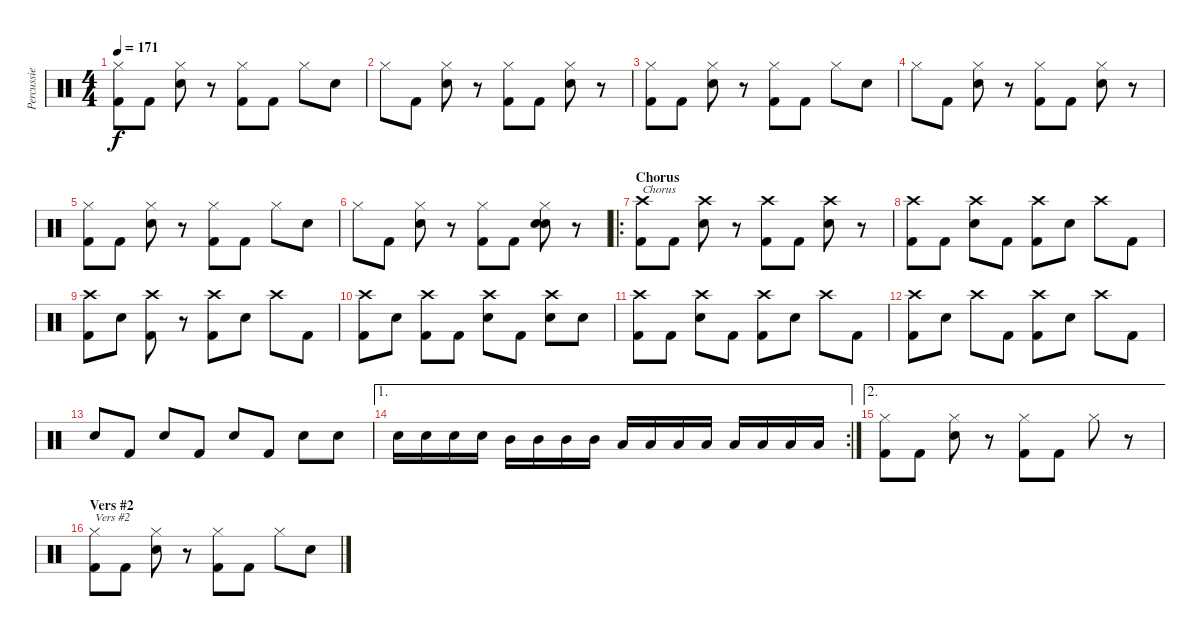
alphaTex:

\track ("Percussie" "Percussie") {instrument percussion}
\staff {score}
\articulation defaults
\ts (4 4)
\tempo 171
\clef neutral
\ks c
("Hi-Hat (closed)" "Kick (hit) 2").8{dy f} "Kick (hit) 2".8 ("Hi-Hat (closed)" "Snare (hit) 2").8 r.8 ("Hi-Hat (closed)" "Kick (hit) 2").8 "Kick (hit) 2".8 "Hi-Hat (closed)".8 "Snare (hit) 2".8 |
"Hi-Hat (closed)".8 "Kick (hit) 2".8 ("Hi-Hat (closed)" "Snare (hit) 2").8 r.8 ("Hi-Hat (closed)" "Kick (hit) 2").8 "Kick (hit) 2".8 ("Hi-Hat (closed)" "Snare (hit) 2").8 r.8 |
("Hi-Hat (closed)" "Kick (hit) 2").8 "Kick (hit) 2".8 ("Hi-Hat (closed)" "Snare (hit) 2").8 r.8 ("Hi-Hat (closed)" "Kick (hit) 2").8 "Kick (hit) 2".8 "Hi-Hat (closed)".8 "Snare (hit) 2".8 |
"Hi-Hat (closed)".8 "Kick (hit) 2".8 ("Hi-Hat (closed)" "Snare (hit) 2").8 r.8 ("Hi-Hat (closed)" "Kick (hit) 2").8 "Kick (hit) 2".8 ("Hi-Hat (closed)" "Snare (hit) 2").8 r.8 |
("Hi-Hat (closed)" "Kick (hit) 2").8 "Kick (hit) 2".8 ("Hi-Hat (closed)" "Snare (hit) 2").8 r.8 ("Hi-Hat (closed)" "Kick (hit) 2").8 "Kick (hit) 2".8 "Hi-Hat (closed)".8 "Snare (hit) 2".8 |
"Hi-Hat (closed)".8 "Kick (hit) 2".8 ("Hi-Hat (closed)" "Snare (hit) 2").8 r.8 ("Hi-Hat (closed)" "Kick (hit) 2").8 "Kick (hit) 2".8 ("Hi-Hat (closed)" "Snare (hit) 2" "Electric Snare (hit)").8 r.8 |
\ro
\section ("" "Chorus")
("Crash high (hit)" "Kick (hit) 2").8{txt "Chorus"} "Kick (hit) 2".8 ("Crash high (hit)" "Snare (hit) 2").8 r.8 ("Crash high (hit)" "Kick (hit) 2").8 "Kick (hit) 2".8 ("Crash high (hit)" "Snare (hit) 2").8 r.8 |
("Crash high (hit)" "Kick (hit) 2").8 "Kick (hit) 2".8 ("Crash high (hit)" "Snare (hit) 2").8 "Kick (hit) 2".8 ("Crash high (hit)" "Kick (hit) 2").8 "Snare (hit) 2".8 "Crash high (hit)".8 "Kick (hit) 2".8 |
("Crash high (hit)" "Kick (hit) 2").8 "Snare (hit) 2".8 ("Crash high (hit)" "Kick (hit) 2").8 r.8 ("Crash high (hit)" "Kick (hit) 2").8 "Snare (hit) 2".8 "Crash high (hit)".8 "Kick (hit) 2".8 |
("Crash high (hit)" "Kick (hit) 2").8 "Snare (hit) 2".8 ("Crash high (hit)" "Kick (hit) 2").8 "Kick (hit) 2".8 ("Crash high (hit)" "Snare (hit) 2").8 "Kick (hit) 2".8 ("Crash high (hit)" "Snare (hit) 2").8 "Snare (hit) 2".8 |
("Crash high (hit)" "Kick (hit) 2").8 "Kick (hit) 2".8 ("Crash high (hit)" "Snare (hit) 2").8 "Kick (hit) 2".8 ("Crash high (hit)" "Kick (hit) 2").8 "Snare (hit) 2".8 "Crash high (hit)".8 "Kick (hit) 2".8 |
("Crash high (hit)" "Kick (hit) 2").8 "Snare (hit) 2".8 "Crash high (hit)".8 "Kick (hit) 2".8 ("Crash high (hit)" "Kick (hit) 2").8 "Snare (hit) 2".8 "Crash high (hit)".8 "Kick (hit) 2".8 |
"Snare (hit) 2".8 "Kick (hit) 2".8 "Snare (hit) 2".8 "Kick (hit) 2".8 "Snare (hit) 2".8 "Kick (hit) 2".8 "Snare (hit) 2".8 "Snare (hit) 2".8 |
\ae 1
\rc 2 "Snare (hit) 2".16 "Snare (hit) 2".16 "Snare (hit) 2".16 "Snare (hit) 2".16 "Mid Tom (hit)".16 "Mid Tom (hit)".16 "Mid Tom (hit)".16 "Mid Tom (hit)".16 "Low Tom (hit)".16 "Low Tom (hit)".16 "Low Tom (hit)".16 "Low Tom (hit)".16 "Low Floor Tom (hit)".16 "Low Floor Tom (hit)".16 "Low Floor Tom (hit)".16 "Low Floor Tom (hit)".16
|
\ae 2
("Hi-Hat (closed)" "Kick (hit) 2").8 "Kick (hit) 2".8 ("Hi-Hat (closed)" "Snare (hit) 2").8 r.8 ("Hi-Hat (closed)" "Kick (hit) 2").8 "Kick (hit) 2".8 "Hi-Hat (closed)".8 r.8 |
\section ("" "Vers #2")
("Hi-Hat (closed)" "Kick (hit) 2").8{txt "Vers #2"} "Kick (hit) 2".8 ("Hi-Hat (closed)" "Snare (hit) 2").8 r.8 ("Hi-Hat (closed)" "Kick (hit) 2").8 "Kick (hit) 2".8 "Hi-Hat (closed)".8 "Snare (hit) 2".8
